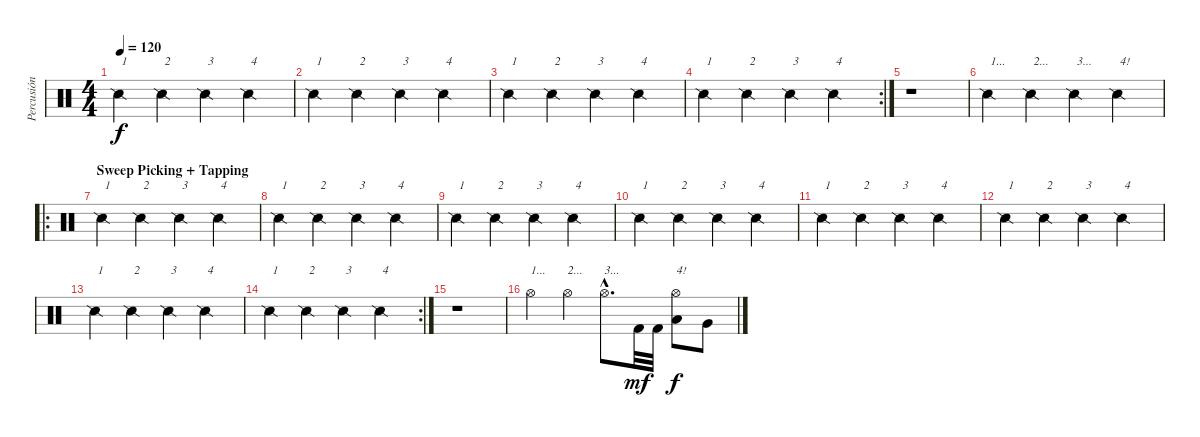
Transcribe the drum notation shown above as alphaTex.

\track ("Percusión" "Percusión") {instrument percussion}
\staff {score}
\articulation defaults
\ts (4 4)
\tempo 120
\clef neutral
\ks c "Snare (side stick) 2".4{txt "1" dy f} "Snare (side stick) 2".4{txt "2"} "Snare (side stick) 2".4{txt "3"} "Snare (side stick) 2".4{txt "4"}
|
"Snare (side stick) 2".4{txt "1"} "Snare (side stick) 2".4{txt "2"} "Snare (side stick) 2".4{txt "3"} "Snare (side stick) 2".4{txt "4"} |
"Snare (side stick) 2".4{txt "1"} "Snare (side stick) 2".4{txt "2"} "Snare (side stick) 2".4{txt "3"} "Snare (side stick) 2".4{txt "4"} |
\rc 2 "Snare (side stick) 2".4{txt "1"} "Snare (side stick) 2".4{txt "2"} "Snare (side stick) 2".4{txt "3"} "Snare (side stick) 2".4{txt "4"}
|
r.1 |
"Snare (side stick) 2".4{txt "1..."} "Snare (side stick) 2".4{txt "2..."} "Snare (side stick) 2".4{txt "3..."} "Snare (side stick) 2".4{txt "4!"} |
\ro
\section ("" "Sweep Picking + Tapping")
"Snare (side stick) 2".4{txt "1"} "Snare (side stick) 2".4{txt "2"} "Snare (side stick) 2".4{txt "3"} "Snare (side stick) 2".4{txt "4"} |
"Snare (side stick) 2".4{txt "1"} "Snare (side stick) 2".4{txt "2"} "Snare (side stick) 2".4{txt "3"} "Snare (side stick) 2".4{txt "4"} |
"Snare (side stick) 2".4{txt "1"} "Snare (side stick) 2".4{txt "2"} "Snare (side stick) 2".4{txt "3"} "Snare (side stick) 2".4{txt "4"} |
"Snare (side stick) 2".4{txt "1"} "Snare (side stick) 2".4{txt "2"} "Snare (side stick) 2".4{txt "3"} "Snare (side stick) 2".4{txt "4"} |
"Snare (side stick) 2".4{txt "1"} "Snare (side stick) 2".4{txt "2"} "Snare (side stick) 2".4{txt "3"} "Snare (side stick) 2".4{txt "4"} |
"Snare (side stick) 2".4{txt "1"} "Snare (side stick) 2".4{txt "2"} "Snare (side stick) 2".4{txt "3"} "Snare (side stick) 2".4{txt "4"} |
"Snare (side stick) 2".4{txt "1"} "Snare (side stick) 2".4{txt "2"} "Snare (side stick) 2".4{txt "3"} "Snare (side stick) 2".4{txt "4"} |
\rc 2 "Snare (side stick) 2".4{txt "1"} "Snare (side stick) 2".4{txt "2"} "Snare (side stick) 2".4{txt "3"} "Snare (side stick) 2".4{txt "4"}
|
r.1 |
"Hi-Hat (open)".4{txt "1..."} "Hi-Hat (open)".4{txt "2..."} "Hi-Hat (open)"{hac}.8{d txt "3..."} "Kick (hit) 2".32{dy mf} "Kick (hit) 2".32 ("Hi-Hat (open)" "Low Tom (hit)").8{txt "4!" dy f} "Very Low Tom (hit)".8
